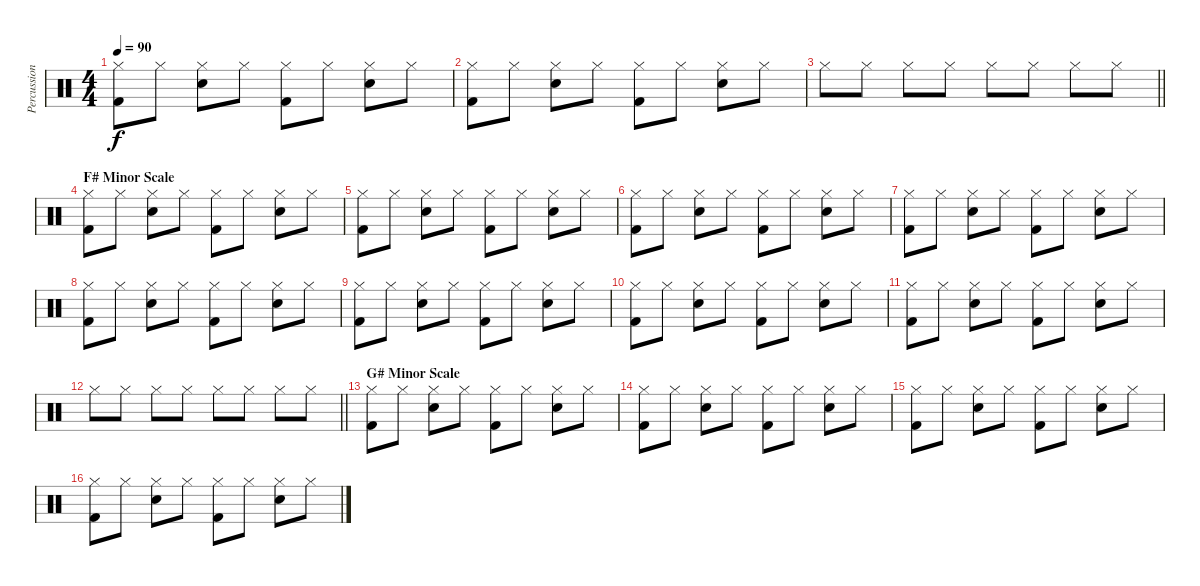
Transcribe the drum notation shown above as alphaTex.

\track ("Percussion" "Percussion") {instrument percussion}
\staff {score}
\articulation defaults
\ts (4 4)
\tempo 90
\clef neutral
\ks c
("Kick (hit) 2" "Hi-Hat (closed)").8{dy f} "Hi-Hat (closed)".8 ("Snare (hit) 2" "Hi-Hat (closed)").8 "Hi-Hat (closed)".8 ("Kick (hit) 2" "Hi-Hat (closed)").8 "Hi-Hat (closed)".8 ("Snare (hit) 2" "Hi-Hat (closed)").8 "Hi-Hat (closed)".8 |
("Kick (hit) 2" "Hi-Hat (closed)").8 "Hi-Hat (closed)".8 ("Snare (hit) 2" "Hi-Hat (closed)").8 "Hi-Hat (closed)".8 ("Kick (hit) 2" "Hi-Hat (closed)").8 "Hi-Hat (closed)".8 ("Snare (hit) 2" "Hi-Hat (closed)").8 "Hi-Hat (closed)".8 |
\barLineRight lightlight "Hi-Hat (closed)".8 "Hi-Hat (closed)".8 "Hi-Hat (closed)".8 "Hi-Hat (closed)".8 "Hi-Hat (closed)".8 "Hi-Hat (closed)".8 "Hi-Hat (closed)".8 "Hi-Hat (closed)".8
|
\section ("" "F# Minor Scale")
("Kick (hit) 2" "Hi-Hat (closed)").8 "Hi-Hat (closed)".8 ("Snare (hit) 2" "Hi-Hat (closed)").8 "Hi-Hat (closed)".8 ("Kick (hit) 2" "Hi-Hat (closed)").8 "Hi-Hat (closed)".8 ("Snare (hit) 2" "Hi-Hat (closed)").8 "Hi-Hat (closed)".8 |
("Kick (hit) 2" "Hi-Hat (closed)").8 "Hi-Hat (closed)".8 ("Snare (hit) 2" "Hi-Hat (closed)").8 "Hi-Hat (closed)".8 ("Kick (hit) 2" "Hi-Hat (closed)").8 "Hi-Hat (closed)".8 ("Snare (hit) 2" "Hi-Hat (closed)").8 "Hi-Hat (closed)".8 |
("Kick (hit) 2" "Hi-Hat (closed)").8 "Hi-Hat (closed)".8 ("Snare (hit) 2" "Hi-Hat (closed)").8 "Hi-Hat (closed)".8 ("Kick (hit) 2" "Hi-Hat (closed)").8 "Hi-Hat (closed)".8 ("Snare (hit) 2" "Hi-Hat (closed)").8 "Hi-Hat (closed)".8 |
("Kick (hit) 2" "Hi-Hat (closed)").8 "Hi-Hat (closed)".8 ("Snare (hit) 2" "Hi-Hat (closed)").8 "Hi-Hat (closed)".8 ("Kick (hit) 2" "Hi-Hat (closed)").8 "Hi-Hat (closed)".8 ("Snare (hit) 2" "Hi-Hat (closed)").8 "Hi-Hat (closed)".8 |
("Kick (hit) 2" "Hi-Hat (closed)").8 "Hi-Hat (closed)".8 ("Snare (hit) 2" "Hi-Hat (closed)").8 "Hi-Hat (closed)".8 ("Kick (hit) 2" "Hi-Hat (closed)").8 "Hi-Hat (closed)".8 ("Snare (hit) 2" "Hi-Hat (closed)").8 "Hi-Hat (closed)".8 |
("Kick (hit) 2" "Hi-Hat (closed)").8 "Hi-Hat (closed)".8 ("Snare (hit) 2" "Hi-Hat (closed)").8 "Hi-Hat (closed)".8 ("Kick (hit) 2" "Hi-Hat (closed)").8 "Hi-Hat (closed)".8 ("Snare (hit) 2" "Hi-Hat (closed)").8 "Hi-Hat (closed)".8 |
("Kick (hit) 2" "Hi-Hat (closed)").8 "Hi-Hat (closed)".8 ("Snare (hit) 2" "Hi-Hat (closed)").8 "Hi-Hat (closed)".8 ("Kick (hit) 2" "Hi-Hat (closed)").8 "Hi-Hat (closed)".8 ("Snare (hit) 2" "Hi-Hat (closed)").8 "Hi-Hat (closed)".8 |
("Kick (hit) 2" "Hi-Hat (closed)").8 "Hi-Hat (closed)".8 ("Snare (hit) 2" "Hi-Hat (closed)").8 "Hi-Hat (closed)".8 ("Kick (hit) 2" "Hi-Hat (closed)").8 "Hi-Hat (closed)".8 ("Snare (hit) 2" "Hi-Hat (closed)").8 "Hi-Hat (closed)".8 |
\barLineRight lightlight "Hi-Hat (closed)".8 "Hi-Hat (closed)".8 "Hi-Hat (closed)".8 "Hi-Hat (closed)".8 "Hi-Hat (closed)".8 "Hi-Hat (closed)".8 "Hi-Hat (closed)".8 "Hi-Hat (closed)".8
|
\section ("" "G# Minor Scale")
("Kick (hit) 2" "Hi-Hat (closed)").8 "Hi-Hat (closed)".8 ("Snare (hit) 2" "Hi-Hat (closed)").8 "Hi-Hat (closed)".8 ("Kick (hit) 2" "Hi-Hat (closed)").8 "Hi-Hat (closed)".8 ("Snare (hit) 2" "Hi-Hat (closed)").8 "Hi-Hat (closed)".8 |
("Kick (hit) 2" "Hi-Hat (closed)").8 "Hi-Hat (closed)".8 ("Snare (hit) 2" "Hi-Hat (closed)").8 "Hi-Hat (closed)".8 ("Kick (hit) 2" "Hi-Hat (closed)").8 "Hi-Hat (closed)".8 ("Snare (hit) 2" "Hi-Hat (closed)").8 "Hi-Hat (closed)".8 |
("Kick (hit) 2" "Hi-Hat (closed)").8 "Hi-Hat (closed)".8 ("Snare (hit) 2" "Hi-Hat (closed)").8 "Hi-Hat (closed)".8 ("Kick (hit) 2" "Hi-Hat (closed)").8 "Hi-Hat (closed)".8 ("Snare (hit) 2" "Hi-Hat (closed)").8 "Hi-Hat (closed)".8 |
("Kick (hit) 2" "Hi-Hat (closed)").8 "Hi-Hat (closed)".8 ("Snare (hit) 2" "Hi-Hat (closed)").8 "Hi-Hat (closed)".8 ("Kick (hit) 2" "Hi-Hat (closed)").8 "Hi-Hat (closed)".8 ("Snare (hit) 2" "Hi-Hat (closed)").8 "Hi-Hat (closed)".8
